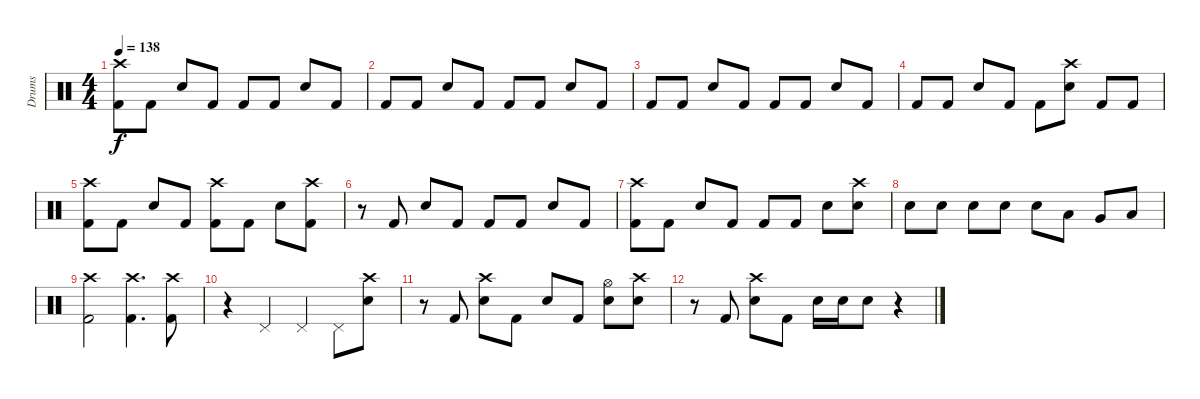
\track ("Drums" "Drums") {instrument percussion}
\staff {score}
\articulation defaults
\ts (4 4)
\tempo 138
\clef neutral
\ks c
("Crash high (hit)" "Kick (hit) 2").8{dy f} "Kick (hit) 2".8 "Snare (hit) 2".8 "Kick (hit) 2".8 "Kick (hit) 2".8 "Kick (hit) 2".8 "Snare (hit) 2".8 "Kick (hit) 2".8 |
"Kick (hit) 2".8 "Kick (hit) 2".8 "Snare (hit) 2".8 "Kick (hit) 2".8 "Kick (hit) 2".8 "Kick (hit) 2".8 "Snare (hit) 2".8 "Kick (hit) 2".8 |
"Kick (hit) 2".8 "Kick (hit) 2".8 "Snare (hit) 2".8 "Kick (hit) 2".8 "Kick (hit) 2".8 "Kick (hit) 2".8 "Snare (hit) 2".8 "Kick (hit) 2".8 |
"Kick (hit) 2".8 "Kick (hit) 2".8 "Snare (hit) 2".8 "Kick (hit) 2".8 "Kick (hit) 2".8 ("Crash high (hit)" "Snare (hit) 2").8 "Kick (hit) 2".8 "Kick (hit) 2".8 |
("Crash high (hit)" "Kick (hit) 2").8 "Kick (hit) 2".8 "Snare (hit) 2".8 "Kick (hit) 2".8 ("Crash high (hit)" "Kick (hit) 2").8 "Kick (hit) 2".8 "Snare (hit) 2".8 ("Crash high (hit)" "Kick (hit) 2").8 |
r.8 "Kick (hit) 2".8 "Snare (hit) 2".8 "Kick (hit) 2".8 "Kick (hit) 2".8 "Kick (hit) 2".8 "Snare (hit) 2".8 "Kick (hit) 2".8 |
("Crash high (hit)" "Kick (hit) 2").8 "Kick (hit) 2".8 "Snare (hit) 2".8 "Kick (hit) 2".8 "Kick (hit) 2".8 "Kick (hit) 2".8 "Snare (hit) 2".8 ("Crash high (hit)" "Snare (hit) 2").8 |
"Snare (hit) 2".8 "Snare (hit) 2".8 "Snare (hit) 2".8 "Snare (hit) 2".8 "Snare (hit) 2".8 "Low Tom (hit)".8 "Very Low Tom (hit)".8 "Low Floor Tom (hit)".8 |
("Crash high (hit)" "Kick (hit) 2").2 ("Crash high (hit)" "Kick (hit) 2").4{d} ("Crash high (hit)" "Kick (hit) 2").8 |
r.4 "Pedal Hi-Hat (hit)".4 "Pedal Hi-Hat (hit)".4 "Pedal Hi-Hat (hit)".8 ("Crash high (hit)" "Snare (hit) 2").8 |
r.8 "Kick (hit) 2".8 ("Crash high (hit)" "Snare (hit) 2").8 "Kick (hit) 2".8 "Snare (hit) 2".8 "Kick (hit) 2".8 ("Hi-Hat (open)" "Snare (hit) 2").8 ("Crash high (hit)" "Snare (hit) 2").8 |
r.8 "Kick (hit) 2".8 ("Crash high (hit)" "Snare (hit) 2").8 "Kick (hit) 2".8 "Snare (hit) 2".16 "Snare (hit) 2".16 "Snare (hit) 2".8 r.4
